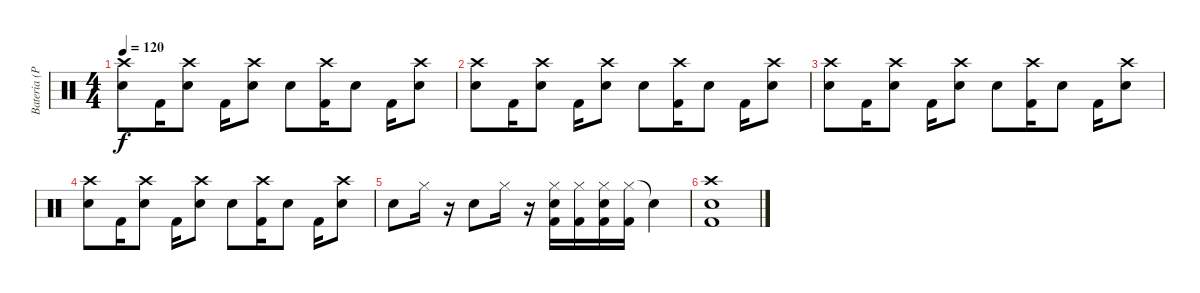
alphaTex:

\track ("Bateria (Pelado)" "Bateria (P") {instrument percussion}
\staff {score}
\articulation defaults
\ts (4 4)
\tempo 120
\clef neutral
\ks c
("Crash high (hit)" "Electric Snare (hit)").8{dy f} "Kick (hit) 2".16 ("Crash high (hit)" "Electric Snare (hit)").8 "Kick (hit) 2".16 ("Crash high (hit)" "Electric Snare (hit)").8 "Electric Snare (hit)".8 ("Crash high (hit)" "Kick (hit) 2").16 "Electric Snare (hit)".8 "Kick (hit) 2".16 ("Crash high (hit)" "Electric Snare (hit)").8 |
("Crash high (hit)" "Electric Snare (hit)").8 "Kick (hit) 2".16 ("Crash high (hit)" "Electric Snare (hit)").8 "Kick (hit) 2".16 ("Crash high (hit)" "Electric Snare (hit)").8 "Electric Snare (hit)".8 ("Crash high (hit)" "Kick (hit) 2").16 "Electric Snare (hit)".8 "Kick (hit) 2".16 ("Crash high (hit)" "Electric Snare (hit)").8 |
("Crash high (hit)" "Electric Snare (hit)").8 "Kick (hit) 2".16 ("Crash high (hit)" "Electric Snare (hit)").8 "Kick (hit) 2".16 ("Crash high (hit)" "Electric Snare (hit)").8 "Electric Snare (hit)".8 ("Crash high (hit)" "Kick (hit) 2").16 "Electric Snare (hit)".8 "Kick (hit) 2".16 ("Crash high (hit)" "Electric Snare (hit)").8 |
("Crash high (hit)" "Electric Snare (hit)").8 "Kick (hit) 2".16 ("Crash high (hit)" "Electric Snare (hit)").8 "Kick (hit) 2".16 ("Crash high (hit)" "Electric Snare (hit)").8 "Electric Snare (hit)".8 ("Crash high (hit)" "Kick (hit) 2").16 "Electric Snare (hit)".8 "Kick (hit) 2".16 ("Crash high (hit)" "Electric Snare (hit)").8 |
"Electric Snare (hit)".8 "Hi-Hat (closed)".16 r.16 "Electric Snare (hit)".8 "Hi-Hat (closed)".16 r.16 ("Hi-Hat (closed)" "Electric Snare (hit)" "Kick (hit) 2").16 ("Hi-Hat (closed)" "Kick (hit) 2").16 ("Hi-Hat (closed)" "Electric Snare (hit)" "Kick (hit) 2").16 ("Hi-Hat (closed)" "Kick (hit) 2").16 "Snare (hit)"{t}.4 |
("Crash high (hit)" "Electric Snare (hit)" "Kick (hit) 2").1
